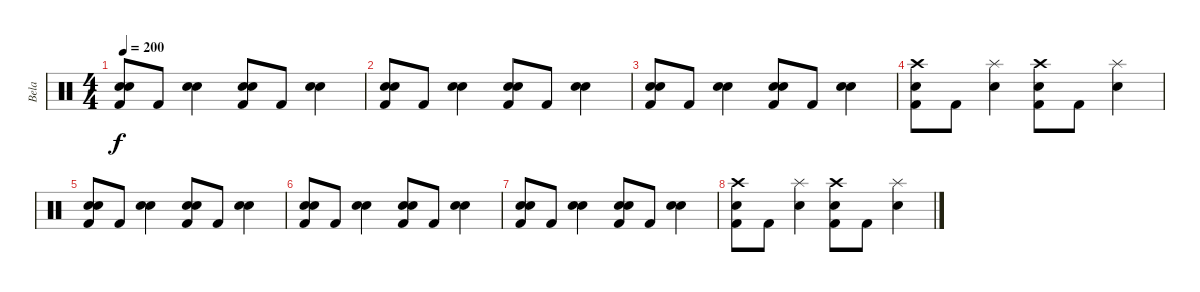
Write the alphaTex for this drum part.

\track ("Bela" "Bela") {instrument percussion}
\staff {score}
\articulation defaults
\ts (4 4)
\tempo 200
\clef neutral
\ks c
("Electric Snare (hit)" "Snare (hit) 2" "Kick (hit) 2").8{dy f} "Kick (hit) 2".8 ("Electric Snare (hit)" "Snare (hit) 2").4 ("Electric Snare (hit)" "Snare (hit) 2" "Kick (hit) 2").8 "Kick (hit) 2".8 ("Electric Snare (hit)" "Snare (hit) 2").4 |
("Electric Snare (hit)" "Snare (hit) 2" "Kick (hit) 2").8 "Kick (hit) 2".8 ("Electric Snare (hit)" "Snare (hit) 2").4 ("Electric Snare (hit)" "Snare (hit) 2" "Kick (hit) 2").8 "Kick (hit) 2".8 ("Electric Snare (hit)" "Snare (hit) 2").4 |
("Electric Snare (hit)" "Snare (hit) 2" "Kick (hit) 2").8 "Kick (hit) 2".8 ("Electric Snare (hit)" "Snare (hit) 2").4 ("Electric Snare (hit)" "Snare (hit) 2" "Kick (hit) 2").8 "Kick (hit) 2".8 ("Electric Snare (hit)" "Snare (hit) 2").4 |
("Crash high (hit)" "Electric Snare (hit)" "Kick (hit) 2").8 "Kick (hit) 2".8 ("Splash (hit)" "Electric Snare (hit)").4 ("Crash high (hit)" "Electric Snare (hit)" "Kick (hit) 2").8 "Kick (hit) 2".8 ("Splash (hit)" "Electric Snare (hit)").4 |
("Electric Snare (hit)" "Snare (hit) 2" "Kick (hit) 2").8 "Kick (hit) 2".8 ("Electric Snare (hit)" "Snare (hit) 2").4 ("Electric Snare (hit)" "Snare (hit) 2" "Kick (hit) 2").8 "Kick (hit) 2".8 ("Electric Snare (hit)" "Snare (hit) 2").4 |
("Electric Snare (hit)" "Snare (hit) 2" "Kick (hit) 2").8 "Kick (hit) 2".8 ("Electric Snare (hit)" "Snare (hit) 2").4 ("Electric Snare (hit)" "Snare (hit) 2" "Kick (hit) 2").8 "Kick (hit) 2".8 ("Electric Snare (hit)" "Snare (hit) 2").4 |
("Electric Snare (hit)" "Snare (hit) 2" "Kick (hit) 2").8 "Kick (hit) 2".8 ("Electric Snare (hit)" "Snare (hit) 2").4 ("Electric Snare (hit)" "Snare (hit) 2" "Kick (hit) 2").8 "Kick (hit) 2".8 ("Electric Snare (hit)" "Snare (hit) 2").4 |
("Crash high (hit)" "Electric Snare (hit)" "Kick (hit) 2").8 "Kick (hit) 2".8 ("Splash (hit)" "Electric Snare (hit)").4 ("Crash high (hit)" "Electric Snare (hit)" "Kick (hit) 2").8 "Kick (hit) 2".8 ("Splash (hit)" "Electric Snare (hit)").4
